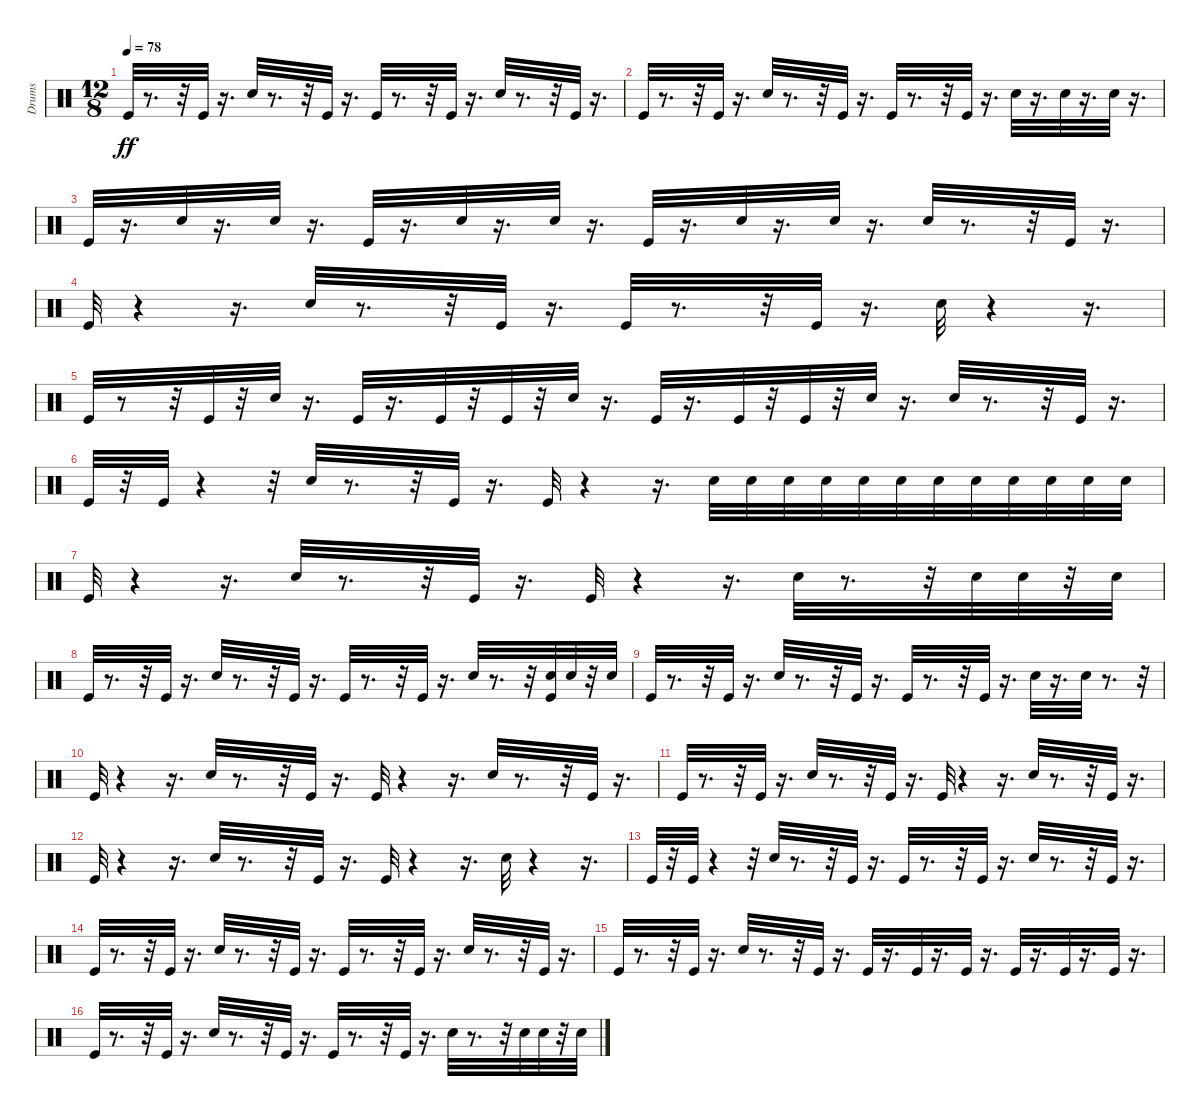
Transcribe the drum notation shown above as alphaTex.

\track ("Drums" "Drums") {instrument percussion}
\staff {score}
\articulation defaults
\ts (12 8)
\tempo 78
\clef neutral
\ks c "Kick (hit)".32{dy ff}
r.8{d} r.32 "Kick (hit)".32 r.16{d} "Electric Snare (hit)".32 r.8{d} r.32 "Kick (hit)".32 r.16{d} "Kick (hit)".32 r.8{d} r.32 "Kick (hit)".32 r.16{d} "Electric Snare (hit)".32 r.8{d} r.32 "Kick (hit)".32 r.16{d} |
"Kick (hit)".32 r.8{d} r.32 "Kick (hit)".32 r.16{d} "Electric Snare (hit)".32 r.8{d} r.32 "Kick (hit)".32 r.16{d} "Kick (hit)".32 r.8{d} r.32 "Kick (hit)".32 r.16{d} "Electric Snare (hit)".32 r.16{d} "Electric Snare (hit)".32 r.16{d} "Electric Snare (hit)".32 r.16{d} |
"Kick (hit)".32 r.16{d} "Electric Snare (hit)".32 r.16{d} "Electric Snare (hit)".32 r.16{d} "Kick (hit)".32 r.16{d} "Electric Snare (hit)".32 r.16{d} "Electric Snare (hit)".32 r.16{d} "Kick (hit)".32 r.16{d} "Electric Snare (hit)".32 r.16{d} "Electric Snare (hit)".32 r.16{d} "Electric Snare (hit)".32 r.8{d} r.32 "Kick (hit)".32 r.16{d} |
"Kick (hit)".32 r.4 r.16{d} "Electric Snare (hit)".32 r.8{d} r.32 "Kick (hit)".32 r.16{d} "Kick (hit)".32 r.8{d} r.32 "Kick (hit)".32 r.16{d} "Electric Snare (hit)".32 r.4 r.16{d} |
"Kick (hit)".32 r.8 r.32 "Kick (hit)".32 r.32 "Electric Snare (hit)".32 r.16{d} "Kick (hit)".32 r.16{d} "Kick (hit)".32 r.32 "Kick (hit)".32 r.32 "Electric Snare (hit)".32 r.16{d} "Kick (hit)".32 r.16{d} "Kick (hit)".32 r.32 "Kick (hit)".32 r.32 "Electric Snare (hit)".32 r.16{d} "Electric Snare (hit)".32 r.8{d} r.32 "Kick (hit)".32 r.16{d} |
"Kick (hit)".32 r.32 "Kick (hit)".32 r.4 r.32 "Electric Snare (hit)".32 r.8{d} r.32 "Kick (hit)".32 r.16{d} "Kick (hit)".32 r.4 r.16{d} "Electric Snare (hit)".32 "Electric Snare (hit)".32 "Electric Snare (hit)".32 "Electric Snare (hit)".32 "Electric Snare (hit)".32 "Electric Snare (hit)".32 "Electric Snare (hit)".32 "Electric Snare (hit)".32 "Electric Snare (hit)".32 "Electric Snare (hit)".32 "Electric Snare (hit)".32 "Electric Snare (hit)".32 |
"Kick (hit)".32 r.4 r.16{d} "Electric Snare (hit)".32 r.8{d} r.32 "Kick (hit)".32 r.16{d} "Kick (hit)".32 r.4 r.16{d} "Electric Snare (hit)".32 r.8{d} r.32 "Electric Snare (hit)".32 "Electric Snare (hit)".32 r.32 "Electric Snare (hit)".32 |
"Kick (hit)".32 r.8{d} r.32 "Kick (hit)".32 r.16{d} "Electric Snare (hit)".32 r.8{d} r.32 "Kick (hit)".32 r.16{d} "Kick (hit)".32 r.8{d} r.32 "Kick (hit)".32 r.16{d} "Electric Snare (hit)".32 r.8{d} r.32 ("Kick (hit)" "Electric Snare (hit)").32 "Electric Snare (hit)".32 r.32 "Electric Snare (hit)".32 |
"Kick (hit)".32 r.8{d} r.32 "Kick (hit)".32 r.16{d} "Electric Snare (hit)".32 r.8{d} r.32 "Kick (hit)".32 r.16{d} "Kick (hit)".32 r.8{d} r.32 "Kick (hit)".32 r.16{d} "Electric Snare (hit)".32 r.16{d} "Electric Snare (hit)".32 r.8{d} r.32 |
"Kick (hit)".32 r.4 r.16{d} "Electric Snare (hit)".32 r.8{d} r.32 "Kick (hit)".32 r.16{d} "Kick (hit)".32 r.4 r.16{d} "Electric Snare (hit)".32 r.8{d} r.32 "Kick (hit)".32 r.16{d} |
"Kick (hit)".32 r.8{d} r.32 "Kick (hit)".32 r.16{d} "Electric Snare (hit)".32 r.8{d} r.32 "Kick (hit)".32 r.16{d} "Kick (hit)".32 r.4 r.16{d} "Electric Snare (hit)".32 r.8{d} r.32 "Kick (hit)".32 r.16{d} |
"Kick (hit)".32 r.4 r.16{d} "Electric Snare (hit)".32 r.8{d} r.32 "Kick (hit)".32 r.16{d} "Kick (hit)".32 r.4 r.16{d} "Electric Snare (hit)".32 r.4 r.16{d} |
"Kick (hit)".32 r.32 "Kick (hit)".32 r.4 r.32 "Electric Snare (hit)".32 r.8{d} r.32 "Kick (hit)".32 r.16{d} "Kick (hit)".32 r.8{d} r.32 "Kick (hit)".32 r.16{d} "Electric Snare (hit)".32 r.8{d} r.32 "Kick (hit)".32 r.16{d} |
"Kick (hit)".32 r.8{d} r.32 "Kick (hit)".32 r.16{d} "Electric Snare (hit)".32 r.8{d} r.32 "Kick (hit)".32 r.16{d} "Kick (hit)".32 r.8{d} r.32 "Kick (hit)".32 r.16{d} "Electric Snare (hit)".32 r.8{d} r.32 "Kick (hit)".32 r.16{d} |
"Kick (hit)".32 r.8{d} r.32 "Kick (hit)".32 r.16{d} "Electric Snare (hit)".32 r.8{d} r.32 "Kick (hit)".32 r.16{d} "Kick (hit)".32 r.16{d} "Kick (hit)".32 r.16{d} "Kick (hit)".32 r.16{d} "Kick (hit)".32 r.16{d} "Kick (hit)".32 r.16{d} "Kick (hit)".32 r.16{d} |
"Kick (hit)".32 r.8{d} r.32 "Kick (hit)".32 r.16{d} "Electric Snare (hit)".32 r.8{d} r.32 "Kick (hit)".32 r.16{d} "Kick (hit)".32 r.8{d} r.32 "Kick (hit)".32 r.16{d} "Electric Snare (hit)".32 r.8{d} r.32 "Electric Snare (hit)".32 "Electric Snare (hit)".32 r.32 "Electric Snare (hit)".32
